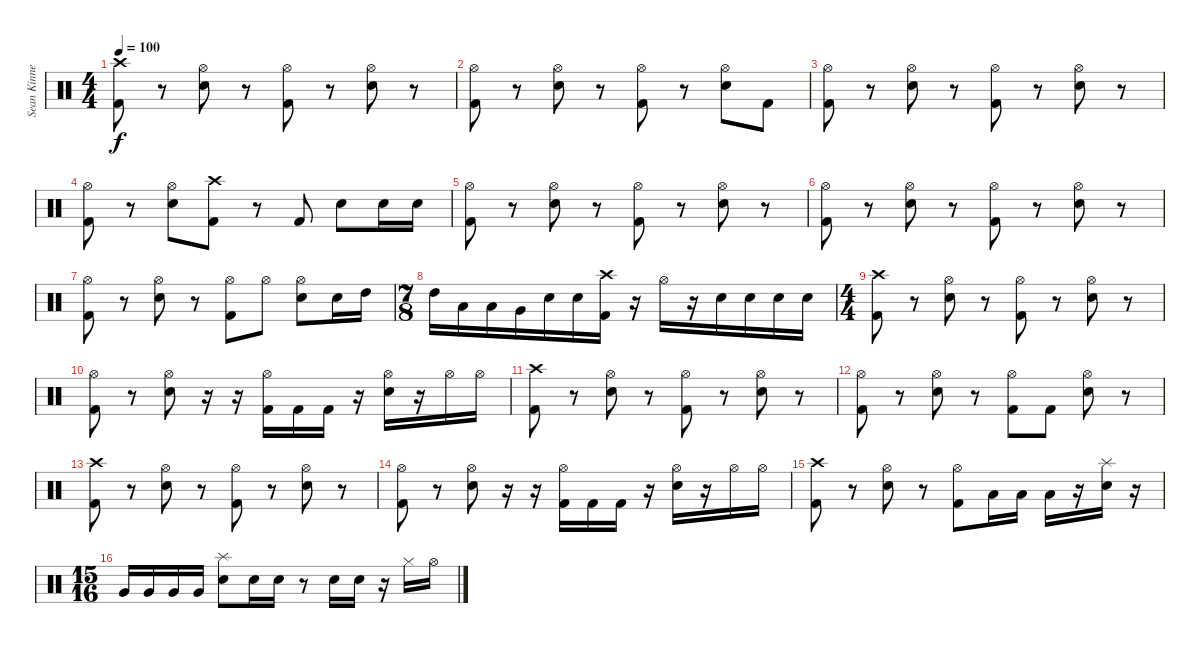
\track ("Sean Kinney" "Sean Kinne") {instrument percussion}
\staff {score}
\articulation defaults
\ts (4 4)
\tempo 100
\clef neutral
\ks c
("Crash high (hit)" "Kick (hit) 2").8{dy f} r.8 ("Hi-Hat (open)" "Snare (hit) 2").8 r.8 ("Hi-Hat (open)" "Kick (hit) 2").8 r.8 ("Hi-Hat (open)" "Snare (hit) 2").8 r.8 |
("Hi-Hat (open)" "Kick (hit) 2").8 r.8 ("Hi-Hat (open)" "Snare (hit) 2").8 r.8 ("Hi-Hat (open)" "Kick (hit) 2").8 r.8 ("Hi-Hat (open)" "Snare (hit) 2").8 "Kick (hit) 2".8 |
("Hi-Hat (open)" "Kick (hit) 2").8 r.8 ("Hi-Hat (open)" "Snare (hit) 2").8 r.8 ("Hi-Hat (open)" "Kick (hit) 2").8 r.8 ("Hi-Hat (open)" "Snare (hit) 2").8 r.8 |
("Hi-Hat (open)" "Kick (hit) 2").8 r.8 ("Hi-Hat (open)" "Snare (hit) 2").8 ("Crash high (hit)" "Kick (hit) 2").8 r.8 "Kick (hit) 2".8 "Snare (hit) 2".8 "Snare (hit) 2".16 "Snare (hit) 2".16 |
("Hi-Hat (open)" "Kick (hit) 2").8 r.8 ("Hi-Hat (open)" "Snare (hit) 2").8 r.8 ("Hi-Hat (open)" "Kick (hit) 2").8 r.8 ("Hi-Hat (open)" "Snare (hit) 2").8 r.8 |
("Hi-Hat (open)" "Kick (hit) 2").8 r.8 ("Hi-Hat (open)" "Snare (hit) 2").8 r.8 ("Hi-Hat (open)" "Kick (hit) 2").8 r.8 ("Hi-Hat (open)" "Snare (hit) 2").8 r.8 |
("Hi-Hat (open)" "Kick (hit) 2").8 r.8 ("Hi-Hat (open)" "Snare (hit) 2").8 r.8 ("Hi-Hat (open)" "Kick (hit) 2").8 "Hi-Hat (open)".8 ("Hi-Hat (open)" "Snare (hit) 2").8 "Snare (hit) 2".16 "High Tom (hit)".16 |
\ts (7 8)
"High Tom (hit)".16 "Low Tom (hit)".16 "Low Tom (hit)".16 "Very Low Tom (hit)".16 "Snare (hit) 2".16 "Snare (hit) 2".16 ("Crash high (hit)" "Kick (hit) 2").16 r.16 "Hi-Hat (open)".16 r.16 "Snare (hit) 2".16 "Snare (hit) 2".16 "Snare (hit) 2".16 "Snare (hit) 2".16 |
\ts (4 4)
("Crash high (hit)" "Kick (hit) 2").8 r.8 ("Hi-Hat (open)" "Snare (hit) 2").8 r.8 ("Hi-Hat (open)" "Kick (hit) 2").8 r.8 ("Hi-Hat (open)" "Snare (hit) 2").8 r.8 |
("Hi-Hat (open)" "Kick (hit) 2").8 r.8 ("Hi-Hat (open)" "Snare (hit) 2").8 r.16 r.16 ("Hi-Hat (open)" "Kick (hit) 2").16 "Kick (hit) 2".16 "Kick (hit) 2".16 r.16 ("Hi-Hat (open)" "Snare (hit) 2").16 r.16 "Hi-Hat (open)".16 "Hi-Hat (open)".16 |
("Crash high (hit)" "Kick (hit) 2").8 r.8 ("Hi-Hat (open)" "Snare (hit) 2").8 r.8 ("Hi-Hat (open)" "Kick (hit) 2").8 r.8 ("Hi-Hat (open)" "Snare (hit) 2").8 r.8 |
("Hi-Hat (open)" "Kick (hit) 2").8 r.8 ("Hi-Hat (open)" "Snare (hit) 2").8 r.8 ("Hi-Hat (open)" "Kick (hit) 2").8 "Kick (hit) 2".8 ("Hi-Hat (open)" "Snare (hit) 2").8 r.8 |
("Crash high (hit)" "Kick (hit) 2").8 r.8 ("Hi-Hat (open)" "Snare (hit) 2").8 r.8 ("Hi-Hat (open)" "Kick (hit) 2").8 r.8 ("Hi-Hat (open)" "Snare (hit) 2").8 r.8 |
("Hi-Hat (open)" "Kick (hit) 2").8 r.8 ("Hi-Hat (open)" "Snare (hit) 2").8 r.16 r.16 ("Hi-Hat (open)" "Kick (hit) 2").16 "Kick (hit) 2".16 "Kick (hit) 2".16 r.16 ("Hi-Hat (open)" "Snare (hit) 2").16 r.16 "Hi-Hat (open)".16 "Hi-Hat (open)".16 |
("Crash high (hit)" "Kick (hit) 2").8 r.8 ("Hi-Hat (open)" "Snare (hit) 2").8 r.8 ("Hi-Hat (open)" "Kick (hit) 2").8 "Low Tom (hit)".16 "Low Tom (hit)".16 "Low Tom (hit)".16 r.16 ("Splash (hit)" "Snare (hit) 2").16 r.16 |
\ts (15 16)
"Very Low Tom (hit)".16 "Very Low Tom (hit)".16 "Very Low Tom (hit)".16 "Very Low Tom (hit)".16 ("Splash (hit)" "Snare (hit) 2").8 "Snare (hit) 2".16 "Snare (hit) 2".16 r.8 "Snare (hit) 2".16 "Snare (hit) 2".16 r.16 "Hi-Hat (closed)".16 "Hi-Hat (open)".16
